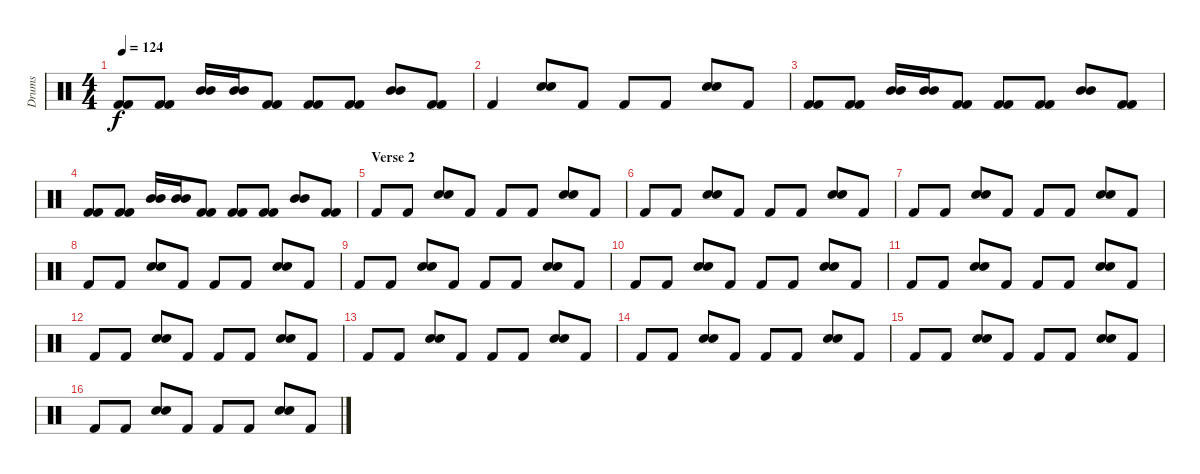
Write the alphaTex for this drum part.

\track ("Drums" "Drums") {instrument percussion}
\staff {score}
\articulation defaults
\ts (4 4)
\tempo 124
\clef neutral
\ks c
("Kick (hit) 2" "Kick (hit) 2").8{dy f} ("Kick (hit) 2" "Kick (hit) 2").8 ("Mid Tom (hit)" "Mid Tom (hit)").16 ("Mid Tom (hit)" "Mid Tom (hit)").16 ("Kick (hit) 2" "Kick (hit) 2").8 ("Kick (hit) 2" "Kick (hit) 2").8 ("Kick (hit) 2" "Kick (hit) 2").8 ("Mid Tom (hit)" "Mid Tom (hit)").8 ("Kick (hit) 2" "Kick (hit) 2").8 |
"Kick (hit) 2".4 ("Snare (hit) 2" "Snare (hit) 2").8 "Kick (hit) 2".8 "Kick (hit) 2".8 "Kick (hit) 2".8 ("Snare (hit) 2" "Snare (hit) 2").8 "Kick (hit) 2".8 |
("Kick (hit) 2" "Kick (hit) 2").8 ("Kick (hit) 2" "Kick (hit) 2").8 ("Mid Tom (hit)" "Mid Tom (hit)").16 ("Mid Tom (hit)" "Mid Tom (hit)").16 ("Kick (hit) 2" "Kick (hit) 2").8 ("Kick (hit) 2" "Kick (hit) 2").8 ("Kick (hit) 2" "Kick (hit) 2").8 ("Mid Tom (hit)" "Mid Tom (hit)").8 ("Kick (hit) 2" "Kick (hit) 2").8 |
("Kick (hit) 2" "Kick (hit) 2").8 ("Kick (hit) 2" "Kick (hit) 2").8 ("Mid Tom (hit)" "Mid Tom (hit)").16 ("Mid Tom (hit)" "Mid Tom (hit)").16 ("Kick (hit) 2" "Kick (hit) 2").8 ("Kick (hit) 2" "Kick (hit) 2").8 ("Kick (hit) 2" "Kick (hit) 2").8 ("Mid Tom (hit)" "Mid Tom (hit)").8 ("Kick (hit) 2" "Kick (hit) 2").8 |
\section ("" "Verse 2")
"Kick (hit) 2".8 "Kick (hit) 2".8 ("Snare (hit) 2" "Snare (hit) 2").8 "Kick (hit) 2".8 "Kick (hit) 2".8 "Kick (hit) 2".8 ("Snare (hit) 2" "Snare (hit) 2").8 "Kick (hit) 2".8 |
"Kick (hit) 2".8 "Kick (hit) 2".8 ("Snare (hit) 2" "Snare (hit) 2").8 "Kick (hit) 2".8 "Kick (hit) 2".8 "Kick (hit) 2".8 ("Snare (hit) 2" "Snare (hit) 2").8 "Kick (hit) 2".8 |
"Kick (hit) 2".8 "Kick (hit) 2".8 ("Snare (hit) 2" "Snare (hit) 2").8 "Kick (hit) 2".8 "Kick (hit) 2".8 "Kick (hit) 2".8 ("Snare (hit) 2" "Snare (hit) 2").8 "Kick (hit) 2".8 |
"Kick (hit) 2".8 "Kick (hit) 2".8 ("Snare (hit) 2" "Snare (hit) 2").8 "Kick (hit) 2".8 "Kick (hit) 2".8 "Kick (hit) 2".8 ("Snare (hit) 2" "Snare (hit) 2").8 "Kick (hit) 2".8 |
"Kick (hit) 2".8 "Kick (hit) 2".8 ("Snare (hit) 2" "Snare (hit) 2").8 "Kick (hit) 2".8 "Kick (hit) 2".8 "Kick (hit) 2".8 ("Snare (hit) 2" "Snare (hit) 2").8 "Kick (hit) 2".8 |
"Kick (hit) 2".8 "Kick (hit) 2".8 ("Snare (hit) 2" "Snare (hit) 2").8 "Kick (hit) 2".8 "Kick (hit) 2".8 "Kick (hit) 2".8 ("Snare (hit) 2" "Snare (hit) 2").8 "Kick (hit) 2".8 |
"Kick (hit) 2".8 "Kick (hit) 2".8 ("Snare (hit) 2" "Snare (hit) 2").8 "Kick (hit) 2".8 "Kick (hit) 2".8 "Kick (hit) 2".8 ("Snare (hit) 2" "Snare (hit) 2").8 "Kick (hit) 2".8 |
"Kick (hit) 2".8 "Kick (hit) 2".8 ("Snare (hit) 2" "Snare (hit) 2").8 "Kick (hit) 2".8 "Kick (hit) 2".8 "Kick (hit) 2".8 ("Snare (hit) 2" "Snare (hit) 2").8 "Kick (hit) 2".8 |
"Kick (hit) 2".8 "Kick (hit) 2".8 ("Snare (hit) 2" "Snare (hit) 2").8 "Kick (hit) 2".8 "Kick (hit) 2".8 "Kick (hit) 2".8 ("Snare (hit) 2" "Snare (hit) 2").8 "Kick (hit) 2".8 |
"Kick (hit) 2".8 "Kick (hit) 2".8 ("Snare (hit) 2" "Snare (hit) 2").8 "Kick (hit) 2".8 "Kick (hit) 2".8 "Kick (hit) 2".8 ("Snare (hit) 2" "Snare (hit) 2").8 "Kick (hit) 2".8 |
"Kick (hit) 2".8 "Kick (hit) 2".8 ("Snare (hit) 2" "Snare (hit) 2").8 "Kick (hit) 2".8 "Kick (hit) 2".8 "Kick (hit) 2".8 ("Snare (hit) 2" "Snare (hit) 2").8 "Kick (hit) 2".8 |
"Kick (hit) 2".8 "Kick (hit) 2".8 ("Snare (hit) 2" "Snare (hit) 2").8 "Kick (hit) 2".8 "Kick (hit) 2".8 "Kick (hit) 2".8 ("Snare (hit) 2" "Snare (hit) 2").8 "Kick (hit) 2".8
